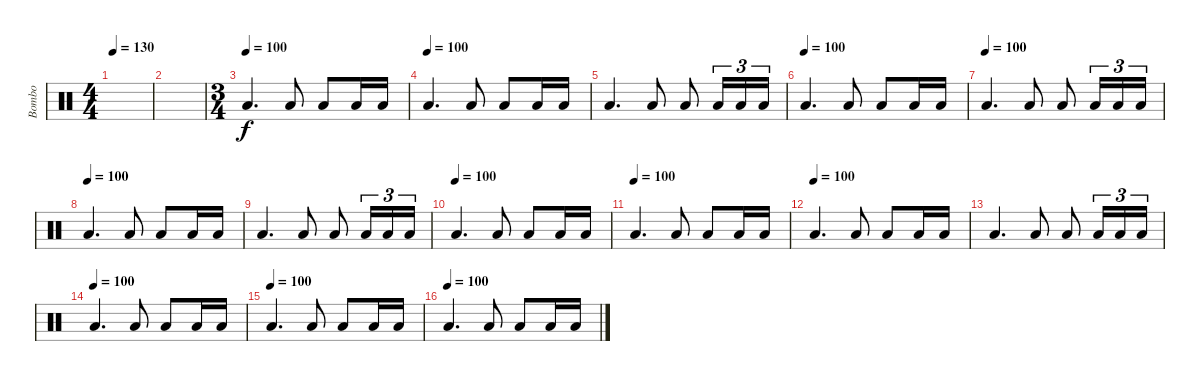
\track ("Bombo" "Bombo") {instrument percussion}
\staff {score}
\articulation defaults
\ts (4 4)
\tempo 130
\clef neutral
\ks c
|
|
\ts (3 4)
\tempo (100)
"Low Floor Tom (hit)".4{d} "Low Floor Tom (hit)".8 "Low Floor Tom (hit)".8 "Low Floor Tom (hit)".16 "Low Floor Tom (hit)".16 |
\tempo (100)
"Low Floor Tom (hit)".4{d} "Low Floor Tom (hit)".8 "Low Floor Tom (hit)".8 "Low Floor Tom (hit)".16 "Low Floor Tom (hit)".16 |
"Low Floor Tom (hit)".4{d} "Low Floor Tom (hit)".8 "Low Floor Tom (hit)".8 "Low Floor Tom (hit)".16{tu (3 2)} "Low Floor Tom (hit)".16{tu (3 2)} "Low Floor Tom (hit)".16{tu (3 2)} |
\tempo (100)
"Low Floor Tom (hit)".4{d} "Low Floor Tom (hit)".8 "Low Floor Tom (hit)".8 "Low Floor Tom (hit)".16 "Low Floor Tom (hit)".16 |
\tempo (100)
"Low Floor Tom (hit)".4{d} "Low Floor Tom (hit)".8 "Low Floor Tom (hit)".8 "Low Floor Tom (hit)".16{tu (3 2)} "Low Floor Tom (hit)".16{tu (3 2)} "Low Floor Tom (hit)".16{tu (3 2)} |
\tempo (100)
"Low Floor Tom (hit)".4{d} "Low Floor Tom (hit)".8 "Low Floor Tom (hit)".8 "Low Floor Tom (hit)".16 "Low Floor Tom (hit)".16 |
"Low Floor Tom (hit)".4{d} "Low Floor Tom (hit)".8 "Low Floor Tom (hit)".8 "Low Floor Tom (hit)".16{tu (3 2)} "Low Floor Tom (hit)".16{tu (3 2)} "Low Floor Tom (hit)".16{tu (3 2)} |
\tempo (100)
"Low Floor Tom (hit)".4{d} "Low Floor Tom (hit)".8 "Low Floor Tom (hit)".8 "Low Floor Tom (hit)".16 "Low Floor Tom (hit)".16 |
\tempo (100)
"Low Floor Tom (hit)".4{d} "Low Floor Tom (hit)".8 "Low Floor Tom (hit)".8 "Low Floor Tom (hit)".16 "Low Floor Tom (hit)".16 |
\tempo (100)
"Low Floor Tom (hit)".4{d} "Low Floor Tom (hit)".8 "Low Floor Tom (hit)".8 "Low Floor Tom (hit)".16 "Low Floor Tom (hit)".16 |
"Low Floor Tom (hit)".4{d} "Low Floor Tom (hit)".8 "Low Floor Tom (hit)".8 "Low Floor Tom (hit)".16{tu (3 2)} "Low Floor Tom (hit)".16{tu (3 2)} "Low Floor Tom (hit)".16{tu (3 2)} |
\tempo (100)
"Low Floor Tom (hit)".4{d} "Low Floor Tom (hit)".8 "Low Floor Tom (hit)".8 "Low Floor Tom (hit)".16 "Low Floor Tom (hit)".16 |
\tempo (100)
"Low Floor Tom (hit)".4{d} "Low Floor Tom (hit)".8 "Low Floor Tom (hit)".8 "Low Floor Tom (hit)".16 "Low Floor Tom (hit)".16 |
\tempo (100)
"Low Floor Tom (hit)".4{d} "Low Floor Tom (hit)".8 "Low Floor Tom (hit)".8 "Low Floor Tom (hit)".16 "Low Floor Tom (hit)".16
